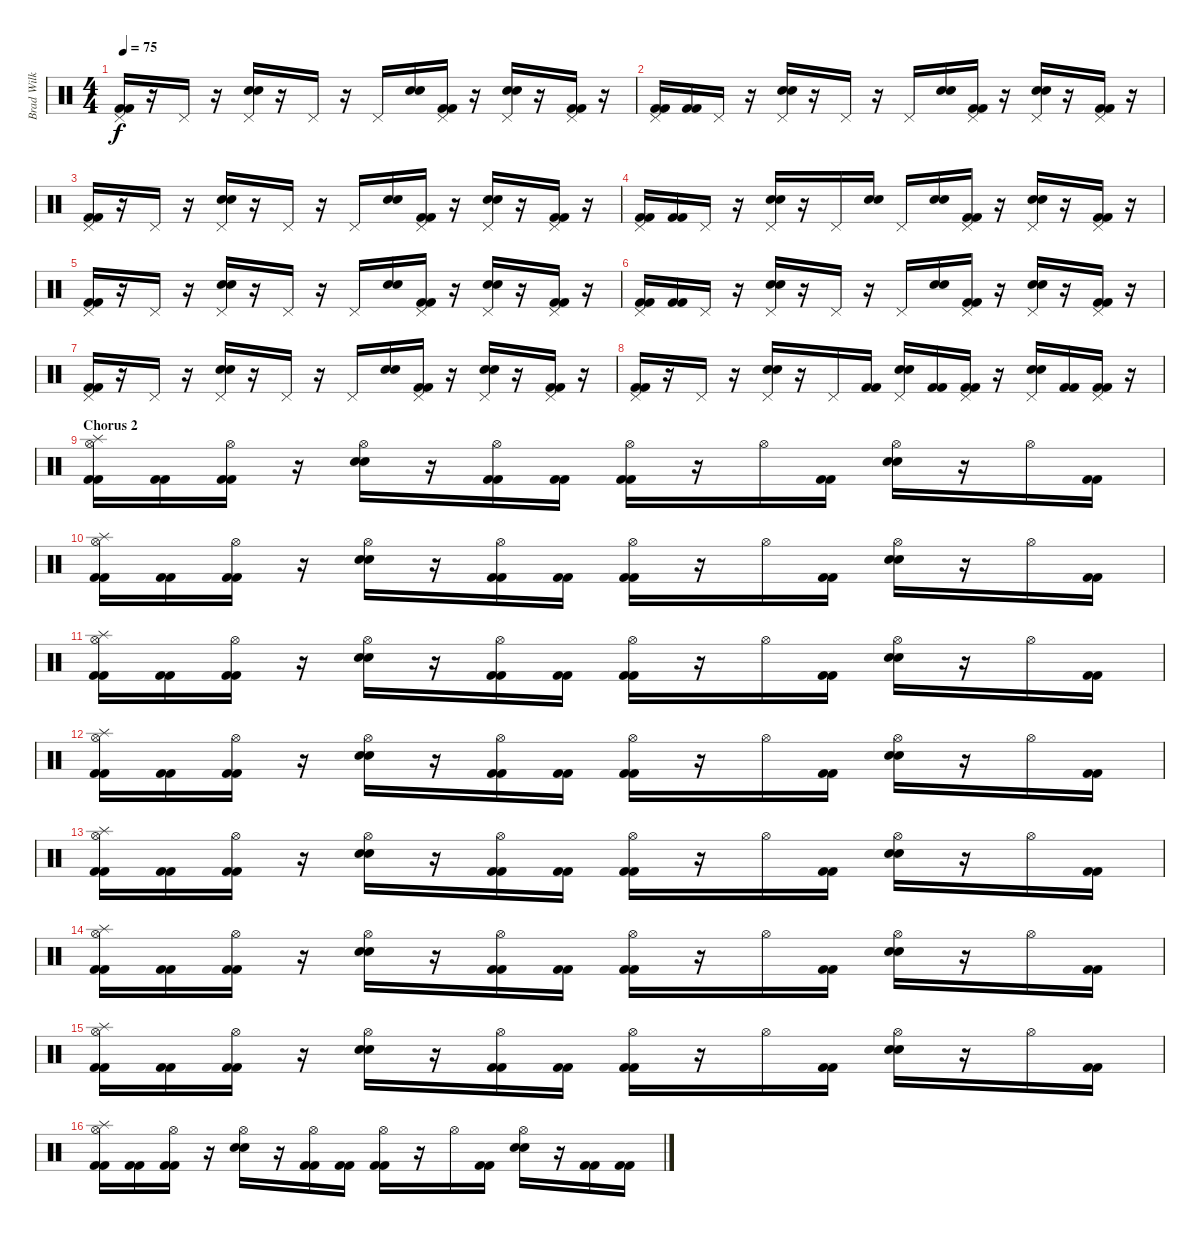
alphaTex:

\track ("Brad Wilk" "Brad Wilk") {instrument percussion}
\staff {score}
\articulation defaults
\ts (4 4)
\tempo 75
\clef neutral
\ks c
("Pedal Hi-Hat (hit)" "Kick (hit) 2" "Kick (hit) 2").16{dy f volume 16} r.16 "Pedal Hi-Hat (hit)".16 r.16 ("Pedal Hi-Hat (hit)" "Electric Snare (hit)" "Electric Snare (hit)").16 r.16 "Pedal Hi-Hat (hit)".16 r.16 "Pedal Hi-Hat (hit)".16 ("Electric Snare (hit)" "Electric Snare (hit)").16 ("Pedal Hi-Hat (hit)" "Kick (hit) 2" "Kick (hit) 2").16 r.16 ("Pedal Hi-Hat (hit)" "Electric Snare (hit)" "Electric Snare (hit)").16 r.16 ("Pedal Hi-Hat (hit)" "Kick (hit) 2" "Kick (hit) 2").16 r.16 |
("Pedal Hi-Hat (hit)" "Kick (hit) 2" "Kick (hit) 2").16 ("Kick (hit) 2" "Kick (hit) 2").16 "Pedal Hi-Hat (hit)".16 r.16 ("Pedal Hi-Hat (hit)" "Electric Snare (hit)" "Electric Snare (hit)").16 r.16 "Pedal Hi-Hat (hit)".16 r.16 "Pedal Hi-Hat (hit)".16 ("Electric Snare (hit)" "Electric Snare (hit)").16 ("Pedal Hi-Hat (hit)" "Kick (hit) 2" "Kick (hit) 2").16 r.16 ("Pedal Hi-Hat (hit)" "Electric Snare (hit)" "Electric Snare (hit)").16 r.16 ("Pedal Hi-Hat (hit)" "Kick (hit) 2" "Kick (hit) 2").16 r.16 |
("Pedal Hi-Hat (hit)" "Kick (hit) 2" "Kick (hit) 2").16 r.16 "Pedal Hi-Hat (hit)".16 r.16 ("Pedal Hi-Hat (hit)" "Electric Snare (hit)" "Electric Snare (hit)").16 r.16 "Pedal Hi-Hat (hit)".16 r.16 "Pedal Hi-Hat (hit)".16 ("Electric Snare (hit)" "Electric Snare (hit)").16 ("Pedal Hi-Hat (hit)" "Kick (hit) 2" "Kick (hit) 2").16 r.16 ("Pedal Hi-Hat (hit)" "Electric Snare (hit)" "Electric Snare (hit)").16 r.16 ("Pedal Hi-Hat (hit)" "Kick (hit) 2" "Kick (hit) 2").16 r.16 |
("Pedal Hi-Hat (hit)" "Kick (hit) 2" "Kick (hit) 2").16 ("Kick (hit) 2" "Kick (hit) 2").16 "Pedal Hi-Hat (hit)".16 r.16 ("Pedal Hi-Hat (hit)" "Electric Snare (hit)" "Electric Snare (hit)").16 r.16 "Pedal Hi-Hat (hit)".16 ("Electric Snare (hit)" "Electric Snare (hit)").16 "Pedal Hi-Hat (hit)".16 ("Electric Snare (hit)" "Electric Snare (hit)").16 ("Pedal Hi-Hat (hit)" "Kick (hit) 2" "Kick (hit) 2").16 r.16 ("Pedal Hi-Hat (hit)" "Electric Snare (hit)" "Electric Snare (hit)").16 r.16 ("Pedal Hi-Hat (hit)" "Kick (hit) 2" "Kick (hit) 2").16 r.16 |
("Pedal Hi-Hat (hit)" "Kick (hit) 2" "Kick (hit) 2").16 r.16 "Pedal Hi-Hat (hit)".16 r.16 ("Pedal Hi-Hat (hit)" "Electric Snare (hit)" "Electric Snare (hit)").16 r.16 "Pedal Hi-Hat (hit)".16 r.16 "Pedal Hi-Hat (hit)".16 ("Electric Snare (hit)" "Electric Snare (hit)").16 ("Pedal Hi-Hat (hit)" "Kick (hit) 2" "Kick (hit) 2").16 r.16 ("Pedal Hi-Hat (hit)" "Electric Snare (hit)" "Electric Snare (hit)").16 r.16 ("Pedal Hi-Hat (hit)" "Kick (hit) 2" "Kick (hit) 2").16 r.16 |
("Pedal Hi-Hat (hit)" "Kick (hit) 2" "Kick (hit) 2").16 ("Kick (hit) 2" "Kick (hit) 2").16 "Pedal Hi-Hat (hit)".16 r.16 ("Pedal Hi-Hat (hit)" "Electric Snare (hit)" "Electric Snare (hit)").16 r.16 "Pedal Hi-Hat (hit)".16 r.16 "Pedal Hi-Hat (hit)".16 ("Electric Snare (hit)" "Electric Snare (hit)").16 ("Pedal Hi-Hat (hit)" "Kick (hit) 2" "Kick (hit) 2").16 r.16 ("Pedal Hi-Hat (hit)" "Electric Snare (hit)" "Electric Snare (hit)").16 r.16 ("Pedal Hi-Hat (hit)" "Kick (hit) 2" "Kick (hit) 2").16 r.16 |
("Pedal Hi-Hat (hit)" "Kick (hit) 2" "Kick (hit) 2").16 r.16 "Pedal Hi-Hat (hit)".16 r.16 ("Pedal Hi-Hat (hit)" "Electric Snare (hit)" "Electric Snare (hit)").16 r.16 "Pedal Hi-Hat (hit)".16 r.16 "Pedal Hi-Hat (hit)".16 ("Electric Snare (hit)" "Electric Snare (hit)").16 ("Pedal Hi-Hat (hit)" "Kick (hit) 2" "Kick (hit) 2").16 r.16 ("Pedal Hi-Hat (hit)" "Electric Snare (hit)" "Electric Snare (hit)").16 r.16 ("Pedal Hi-Hat (hit)" "Kick (hit) 2" "Kick (hit) 2").16 r.16 |
("Pedal Hi-Hat (hit)" "Kick (hit) 2" "Kick (hit) 2").16 r.16 "Pedal Hi-Hat (hit)".16 r.16 ("Pedal Hi-Hat (hit)" "Electric Snare (hit)" "Electric Snare (hit)").16 r.16 "Pedal Hi-Hat (hit)".16 ("Kick (hit) 2" "Kick (hit) 2").16 ("Pedal Hi-Hat (hit)" "Electric Snare (hit)" "Electric Snare (hit)").16 ("Kick (hit) 2" "Kick (hit) 2").16 ("Pedal Hi-Hat (hit)" "Kick (hit) 2" "Kick (hit) 2").16 r.16 ("Pedal Hi-Hat (hit)" "Electric Snare (hit)" "Electric Snare (hit)").16 ("Kick (hit) 2" "Kick (hit) 2").16 ("Pedal Hi-Hat (hit)" "Kick (hit) 2" "Kick (hit) 2").16 r.16 |
\section ("" "Chorus 2")
("Hi-Hat (open)" "Splash (hit)" "Kick (hit) 2" "Kick (hit) 2").16 ("Kick (hit) 2" "Kick (hit) 2").16 ("Hi-Hat (open)" "Kick (hit) 2" "Kick (hit) 2").16 r.16 ("Hi-Hat (open)" "Electric Snare (hit)" "Electric Snare (hit)").16 r.16 ("Hi-Hat (open)" "Kick (hit) 2" "Kick (hit) 2").16 ("Kick (hit) 2" "Kick (hit) 2").16 ("Hi-Hat (open)" "Kick (hit) 2" "Kick (hit) 2").16 r.16 "Hi-Hat (open)".16 ("Kick (hit) 2" "Kick (hit) 2").16 ("Hi-Hat (open)" "Electric Snare (hit)" "Electric Snare (hit)").16 r.16 "Hi-Hat (open)".16 ("Kick (hit) 2" "Kick (hit) 2").16 |
("Hi-Hat (open)" "Splash (hit)" "Kick (hit) 2" "Kick (hit) 2").16 ("Kick (hit) 2" "Kick (hit) 2").16 ("Hi-Hat (open)" "Kick (hit) 2" "Kick (hit) 2").16 r.16 ("Hi-Hat (open)" "Electric Snare (hit)" "Electric Snare (hit)").16 r.16 ("Hi-Hat (open)" "Kick (hit) 2" "Kick (hit) 2").16 ("Kick (hit) 2" "Kick (hit) 2").16 ("Hi-Hat (open)" "Kick (hit) 2" "Kick (hit) 2").16 r.16 "Hi-Hat (open)".16 ("Kick (hit) 2" "Kick (hit) 2").16 ("Hi-Hat (open)" "Electric Snare (hit)" "Electric Snare (hit)").16 r.16 "Hi-Hat (open)".16 ("Kick (hit) 2" "Kick (hit) 2").16 |
("Hi-Hat (open)" "Splash (hit)" "Kick (hit) 2" "Kick (hit) 2").16 ("Kick (hit) 2" "Kick (hit) 2").16 ("Hi-Hat (open)" "Kick (hit) 2" "Kick (hit) 2").16 r.16 ("Hi-Hat (open)" "Electric Snare (hit)" "Electric Snare (hit)").16 r.16 ("Hi-Hat (open)" "Kick (hit) 2" "Kick (hit) 2").16 ("Kick (hit) 2" "Kick (hit) 2").16 ("Hi-Hat (open)" "Kick (hit) 2" "Kick (hit) 2").16 r.16 "Hi-Hat (open)".16 ("Kick (hit) 2" "Kick (hit) 2").16 ("Hi-Hat (open)" "Electric Snare (hit)" "Electric Snare (hit)").16 r.16 "Hi-Hat (open)".16 ("Kick (hit) 2" "Kick (hit) 2").16 |
("Hi-Hat (open)" "Splash (hit)" "Kick (hit) 2" "Kick (hit) 2").16 ("Kick (hit) 2" "Kick (hit) 2").16 ("Hi-Hat (open)" "Kick (hit) 2" "Kick (hit) 2").16 r.16 ("Hi-Hat (open)" "Electric Snare (hit)" "Electric Snare (hit)").16 r.16 ("Hi-Hat (open)" "Kick (hit) 2" "Kick (hit) 2").16 ("Kick (hit) 2" "Kick (hit) 2").16 ("Hi-Hat (open)" "Kick (hit) 2" "Kick (hit) 2").16 r.16 "Hi-Hat (open)".16 ("Kick (hit) 2" "Kick (hit) 2").16 ("Hi-Hat (open)" "Electric Snare (hit)" "Electric Snare (hit)").16 r.16 "Hi-Hat (open)".16 ("Kick (hit) 2" "Kick (hit) 2").16 |
("Hi-Hat (open)" "Splash (hit)" "Kick (hit) 2" "Kick (hit) 2").16 ("Kick (hit) 2" "Kick (hit) 2").16 ("Hi-Hat (open)" "Kick (hit) 2" "Kick (hit) 2").16 r.16 ("Hi-Hat (open)" "Electric Snare (hit)" "Electric Snare (hit)").16 r.16 ("Hi-Hat (open)" "Kick (hit) 2" "Kick (hit) 2").16 ("Kick (hit) 2" "Kick (hit) 2").16 ("Hi-Hat (open)" "Kick (hit) 2" "Kick (hit) 2").16 r.16 "Hi-Hat (open)".16 ("Kick (hit) 2" "Kick (hit) 2").16 ("Hi-Hat (open)" "Electric Snare (hit)" "Electric Snare (hit)").16 r.16 "Hi-Hat (open)".16 ("Kick (hit) 2" "Kick (hit) 2").16 |
("Hi-Hat (open)" "Splash (hit)" "Kick (hit) 2" "Kick (hit) 2").16 ("Kick (hit) 2" "Kick (hit) 2").16 ("Hi-Hat (open)" "Kick (hit) 2" "Kick (hit) 2").16 r.16 ("Hi-Hat (open)" "Electric Snare (hit)" "Electric Snare (hit)").16 r.16 ("Hi-Hat (open)" "Kick (hit) 2" "Kick (hit) 2").16 ("Kick (hit) 2" "Kick (hit) 2").16 ("Hi-Hat (open)" "Kick (hit) 2" "Kick (hit) 2").16 r.16 "Hi-Hat (open)".16 ("Kick (hit) 2" "Kick (hit) 2").16 ("Hi-Hat (open)" "Electric Snare (hit)" "Electric Snare (hit)").16 r.16 "Hi-Hat (open)".16 ("Kick (hit) 2" "Kick (hit) 2").16 |
("Hi-Hat (open)" "Splash (hit)" "Kick (hit) 2" "Kick (hit) 2").16 ("Kick (hit) 2" "Kick (hit) 2").16 ("Hi-Hat (open)" "Kick (hit) 2" "Kick (hit) 2").16 r.16 ("Hi-Hat (open)" "Electric Snare (hit)" "Electric Snare (hit)").16 r.16 ("Hi-Hat (open)" "Kick (hit) 2" "Kick (hit) 2").16 ("Kick (hit) 2" "Kick (hit) 2").16 ("Hi-Hat (open)" "Kick (hit) 2" "Kick (hit) 2").16 r.16 "Hi-Hat (open)".16 ("Kick (hit) 2" "Kick (hit) 2").16 ("Hi-Hat (open)" "Electric Snare (hit)" "Electric Snare (hit)").16 r.16 "Hi-Hat (open)".16 ("Kick (hit) 2" "Kick (hit) 2").16 |
("Hi-Hat (open)" "Splash (hit)" "Kick (hit) 2" "Kick (hit) 2").16 ("Kick (hit) 2" "Kick (hit) 2").16 ("Hi-Hat (open)" "Kick (hit) 2" "Kick (hit) 2").16 r.16 ("Hi-Hat (open)" "Electric Snare (hit)" "Electric Snare (hit)").16 r.16 ("Hi-Hat (open)" "Kick (hit) 2" "Kick (hit) 2").16 ("Kick (hit) 2" "Kick (hit) 2").16 ("Hi-Hat (open)" "Kick (hit) 2" "Kick (hit) 2").16 r.16 "Hi-Hat (open)".16 ("Kick (hit) 2" "Kick (hit) 2").16 ("Hi-Hat (open)" "Electric Snare (hit)" "Electric Snare (hit)").16 r.16 ("Kick (hit) 2" "Kick (hit) 2").16 ("Kick (hit) 2" "Kick (hit) 2").16
